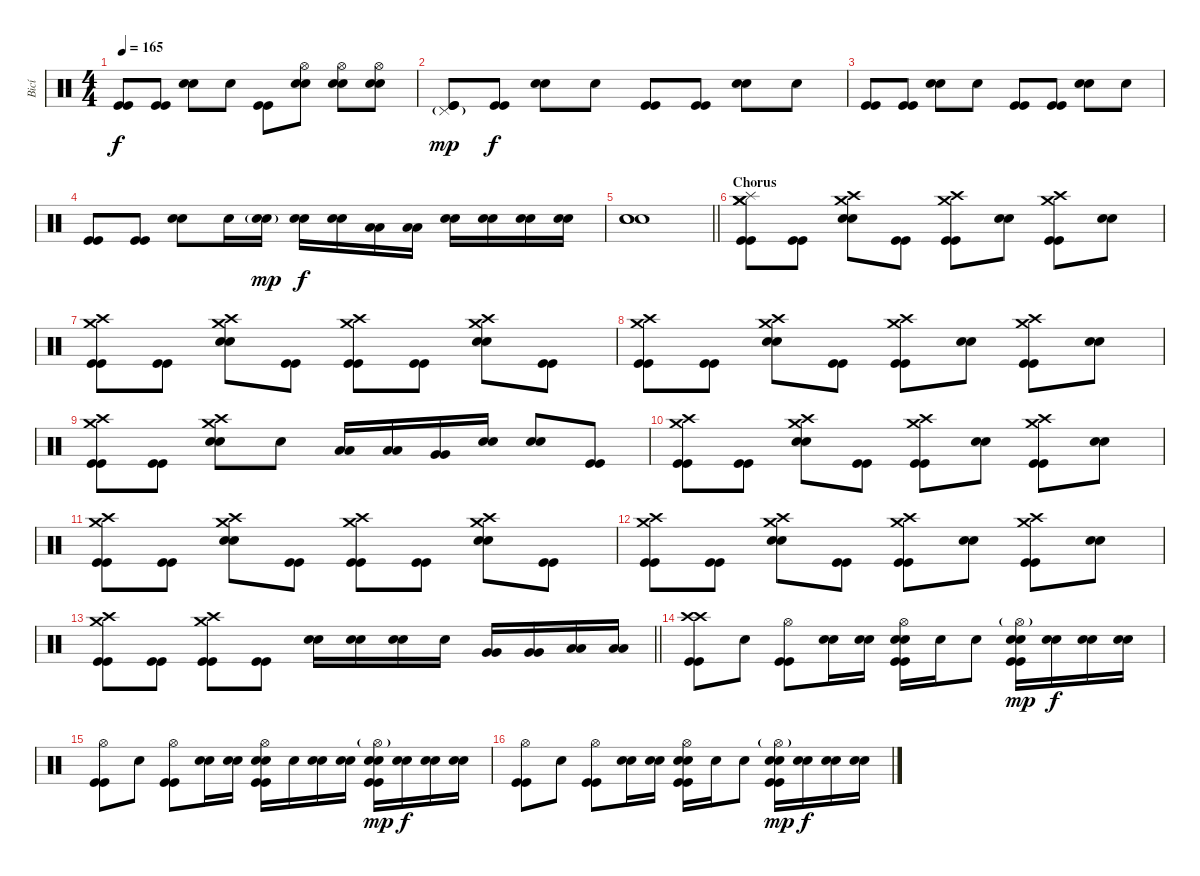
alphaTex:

\track ("Bicí" "Bicí") {instrument percussion}
\staff {score}
\articulation defaults
\ts (4 4)
\tempo 165
\clef neutral
\ks c
("Kick (hit)" "Kick (hit)").8{dy f} ("Kick (hit)" "Kick (hit)").8 ("Electric Snare (hit)" "Electric Snare (hit)").8 "Snare (hit)".8 ("Kick (hit)" "Kick (hit)").8 ("Hi-Hat (open)" "Electric Snare (hit)" "Electric Snare (hit)").8 ("Hi-Hat (open)" "Electric Snare (hit)" "Electric Snare (hit)").8 ("Hi-Hat (open)" "Electric Snare (hit)" "Electric Snare (hit)").8 |
("Pedal Hi-Hat (hit)"{g} "Kick (hit)" "Kick (hit)").8{dy mp} ("Kick (hit)" "Kick (hit)").8{dy f} ("Electric Snare (hit)" "Electric Snare (hit)").8 "Snare (hit)".8 ("Kick (hit)" "Kick (hit)").8 ("Kick (hit)" "Kick (hit)").8 ("Electric Snare (hit)" "Electric Snare (hit)").8 "Snare (hit)".8 |
("Kick (hit)" "Kick (hit)").8 ("Kick (hit)" "Kick (hit)").8 ("Electric Snare (hit)" "Electric Snare (hit)").8 "Snare (hit)".8 ("Kick (hit)" "Kick (hit)").8 ("Kick (hit)" "Kick (hit)").8 ("Electric Snare (hit)" "Electric Snare (hit)").8 "Snare (hit)".8 |
("Kick (hit)" "Kick (hit)").8 ("Kick (hit)" "Kick (hit)").8 ("Electric Snare (hit)" "Electric Snare (hit)").8 "Snare (hit)".16 ("Electric Snare (hit)"{g} "Electric Snare (hit)"{g}).16{dy mp} ("Electric Snare (hit)" "Electric Snare (hit)").16{dy f} ("Electric Snare (hit)" "Electric Snare (hit)").16 ("Low Tom (hit)" "Low Tom (hit)").16 ("Low Tom (hit)" "Low Tom (hit)").16 ("Electric Snare (hit)" "Electric Snare (hit)").16 ("Electric Snare (hit)" "Electric Snare (hit)").16 ("Electric Snare (hit)" "Electric Snare (hit)").16 ("Electric Snare (hit)" "Electric Snare (hit)").16 |
\barLineRight lightlight
("Snare (hit) 2" "Electric Snare (hit)" "Electric Snare (hit)").1 |
\section ("" "Chorus")
("Crash medium (hit)" "Crash medium (hit)" "Splash (hit)" "Kick (hit)" "Kick (hit)").8 ("Kick (hit)" "Kick (hit)").8 ("Crash medium (hit)" "Crash high (hit)" "Electric Snare (hit)" "Electric Snare (hit)").8 ("Kick (hit)" "Kick (hit)").8 ("Crash medium (hit)" "Crash high (hit)" "Kick (hit)" "Kick (hit)").8 ("Electric Snare (hit)" "Electric Snare (hit)").8 ("Crash medium (hit)" "Crash high (hit)" "Kick (hit)" "Kick (hit)").8 ("Electric Snare (hit)" "Electric Snare (hit)").8 |
("Crash medium (hit)" "Crash high (hit)" "Kick (hit)" "Kick (hit)").8 ("Kick (hit)" "Kick (hit)").8 ("Crash medium (hit)" "Crash high (hit)" "Electric Snare (hit)" "Electric Snare (hit)").8 ("Kick (hit)" "Kick (hit)").8 ("Crash medium (hit)" "Crash high (hit)" "Kick (hit)" "Kick (hit)").8 ("Kick (hit)" "Kick (hit)").8 ("Crash medium (hit)" "Crash high (hit)" "Electric Snare (hit)" "Electric Snare (hit)").8 ("Kick (hit)" "Kick (hit)").8 |
("Crash medium (hit)" "Crash high (hit)" "Kick (hit)" "Kick (hit)").8 ("Kick (hit)" "Kick (hit)").8 ("Crash medium (hit)" "Crash high (hit)" "Electric Snare (hit)" "Electric Snare (hit)").8 ("Kick (hit)" "Kick (hit)").8 ("Crash medium (hit)" "Crash high (hit)" "Kick (hit)" "Kick (hit)").8 ("Electric Snare (hit)" "Electric Snare (hit)").8 ("Crash medium (hit)" "Crash high (hit)" "Kick (hit)" "Kick (hit)").8 ("Electric Snare (hit)" "Electric Snare (hit)").8 |
("Crash medium (hit)" "Crash high (hit)" "Kick (hit)" "Kick (hit)").8 ("Kick (hit)" "Kick (hit)").8 ("Crash medium (hit)" "Crash high (hit)" "Electric Snare (hit)" "Electric Snare (hit)").8 "Snare (hit)".8 ("Low Tom (hit)" "Low Tom (hit)").16 ("Low Tom (hit)" "Low Tom (hit)").16 ("Very Low Tom (hit)" "Very Low Tom (hit)").16 ("Electric Snare (hit)" "Electric Snare (hit)").16 ("Electric Snare (hit)" "Electric Snare (hit)").8 ("Kick (hit)" "Kick (hit)").8 |
("Crash medium (hit)" "Crash high (hit)" "Kick (hit)" "Kick (hit)").8 ("Kick (hit)" "Kick (hit)").8 ("Crash medium (hit)" "Crash high (hit)" "Electric Snare (hit)" "Electric Snare (hit)").8 ("Kick (hit)" "Kick (hit)").8 ("Crash medium (hit)" "Crash high (hit)" "Kick (hit)" "Kick (hit)").8 ("Electric Snare (hit)" "Electric Snare (hit)").8 ("Crash medium (hit)" "Crash high (hit)" "Kick (hit)" "Kick (hit)").8 ("Electric Snare (hit)" "Electric Snare (hit)").8 |
("Crash medium (hit)" "Crash high (hit)" "Kick (hit)" "Kick (hit)").8 ("Kick (hit)" "Kick (hit)").8 ("Crash medium (hit)" "Crash high (hit)" "Electric Snare (hit)" "Electric Snare (hit)").8 ("Kick (hit)" "Kick (hit)").8 ("Crash medium (hit)" "Crash high (hit)" "Kick (hit)" "Kick (hit)").8 ("Kick (hit)" "Kick (hit)").8 ("Crash medium (hit)" "Crash high (hit)" "Electric Snare (hit)" "Electric Snare (hit)").8 ("Kick (hit)" "Kick (hit)").8 |
("Crash medium (hit)" "Crash high (hit)" "Kick (hit)" "Kick (hit)").8 ("Kick (hit)" "Kick (hit)").8 ("Crash medium (hit)" "Crash high (hit)" "Electric Snare (hit)" "Electric Snare (hit)").8 ("Kick (hit)" "Kick (hit)").8 ("Crash medium (hit)" "Crash high (hit)" "Kick (hit)" "Kick (hit)").8 ("Electric Snare (hit)" "Electric Snare (hit)").8 ("Crash medium (hit)" "Crash high (hit)" "Kick (hit)" "Kick (hit)").8 ("Electric Snare (hit)" "Electric Snare (hit)").8 |
\barLineRight lightlight
("Crash medium (hit)" "Crash high (hit)" "Kick (hit)" "Kick (hit)").8 ("Kick (hit)" "Kick (hit)").8 ("Crash medium (hit)" "Crash high (hit)" "Kick (hit)" "Kick (hit)").8 ("Kick (hit)" "Kick (hit)").8 ("Electric Snare (hit)" "Electric Snare (hit)").16 ("Electric Snare (hit)" "Electric Snare (hit)").16 ("Electric Snare (hit)" "Electric Snare (hit)").16 "Snare (hit)".16 ("Very Low Tom (hit)" "Very Low Tom (hit)").16 ("Very Low Tom (hit)" "Very Low Tom (hit)").16 ("Low Floor Tom (hit)" "Low Floor Tom (hit)").16 ("Low Floor Tom (hit)" "Low Floor Tom (hit)").16 |
("Crash high (hit)" "Crash high (hit)" "Kick (hit)" "Kick (hit)").8 "Snare (hit)".8 ("Hi-Hat (open)" "Kick (hit)" "Kick (hit)").8 ("Electric Snare (hit)" "Electric Snare (hit)").16 ("Electric Snare (hit)" "Electric Snare (hit)").16 ("Hi-Hat (open)" "Electric Snare (hit)" "Electric Snare (hit)" "Kick (hit)" "Kick (hit)").16 "Snare (hit)".16 "Snare (hit)".8 ("Hi-Hat (open)"{g} "Electric Snare (hit)" "Electric Snare (hit)" "Kick (hit)" "Kick (hit)").16{dy mp} ("Electric Snare (hit)" "Electric Snare (hit)").16{dy f} ("Electric Snare (hit)" "Electric Snare (hit)").16 ("Electric Snare (hit)" "Electric Snare (hit)").16 |
("Hi-Hat (open)" "Kick (hit)" "Kick (hit)").8 "Snare (hit)".8 ("Hi-Hat (open)" "Kick (hit)" "Kick (hit)").8 ("Electric Snare (hit)" "Electric Snare (hit)").16 ("Electric Snare (hit)" "Electric Snare (hit)").16 ("Hi-Hat (open)" "Electric Snare (hit)" "Electric Snare (hit)" "Kick (hit)" "Kick (hit)").16 "Snare (hit)".16 ("Electric Snare (hit)" "Electric Snare (hit)").16 ("Electric Snare (hit)" "Electric Snare (hit)").16 ("Hi-Hat (open)"{g} "Electric Snare (hit)" "Electric Snare (hit)" "Kick (hit)" "Kick (hit)").16{dy mp} ("Electric Snare (hit)" "Electric Snare (hit)").16{dy f} ("Electric Snare (hit)" "Electric Snare (hit)").16 ("Electric Snare (hit)" "Electric Snare (hit)").16 |
("Hi-Hat (open)" "Kick (hit)" "Kick (hit)").8 "Snare (hit)".8 ("Hi-Hat (open)" "Kick (hit)" "Kick (hit)").8 ("Electric Snare (hit)" "Electric Snare (hit)").16 ("Electric Snare (hit)" "Electric Snare (hit)").16 ("Hi-Hat (open)" "Electric Snare (hit)" "Electric Snare (hit)" "Kick (hit)" "Kick (hit)").16 "Snare (hit)".16 "Snare (hit)".8 ("Hi-Hat (open)"{g} "Electric Snare (hit)" "Electric Snare (hit)" "Kick (hit)" "Kick (hit)").16{dy mp} ("Electric Snare (hit)" "Electric Snare (hit)").16{dy f} ("Electric Snare (hit)" "Electric Snare (hit)").16 ("Electric Snare (hit)" "Electric Snare (hit)").16
